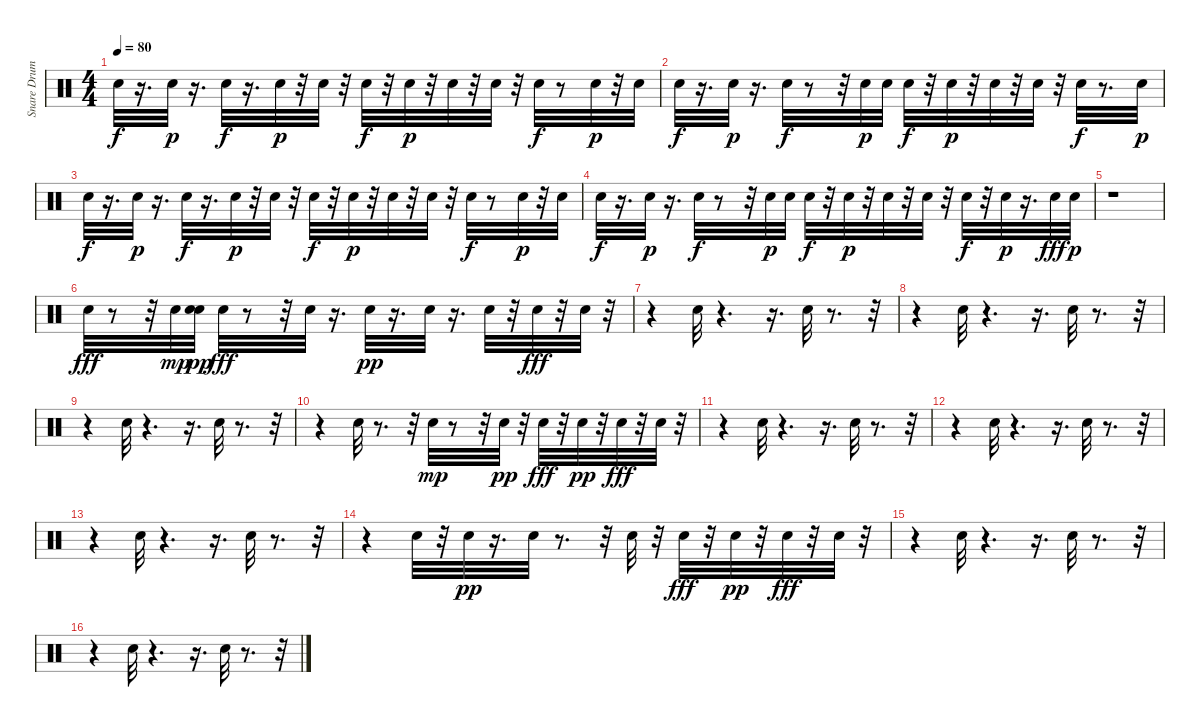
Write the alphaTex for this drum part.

\track ("Snare Drum" "Snare Drum") {instrument percussion}
\staff {score}
\articulation defaults
\ts (4 4)
\tempo 80
\clef neutral
\ks c "Snare (hit) 2".32{dy f}
r.16{d} "Snare (hit) 2".32{dy p} r.16{d} "Snare (hit) 2".32{dy f} r.16{d} "Snare (hit) 2".32{dy p} r.32 "Snare (hit) 2".32 r.32 "Snare (hit) 2".32{dy f} r.32 "Snare (hit) 2".32{dy p} r.32 "Snare (hit) 2".32 r.32 "Snare (hit) 2".32 r.32 "Snare (hit) 2".32{dy f} r.8 "Snare (hit) 2".32{dy p} r.32 "Snare (hit) 2".32 |
"Snare (hit) 2".32{dy f} r.16{d} "Snare (hit) 2".32{dy p} r.16{d} "Snare (hit) 2".32{dy f} r.8 r.32 "Snare (hit) 2".32{dy p} "Snare (hit) 2".32 "Snare (hit) 2".32{dy f} r.32 "Snare (hit) 2".32{dy p} r.32 "Snare (hit) 2".32 r.32 "Snare (hit) 2".32 r.32 "Snare (hit) 2".32{dy f} r.8{d} "Snare (hit) 2".32{dy p} |
"Snare (hit) 2".32{dy f} r.16{d} "Snare (hit) 2".32{dy p} r.16{d} "Snare (hit) 2".32{dy f} r.16{d} "Snare (hit) 2".32{dy p} r.32 "Snare (hit) 2".32 r.32 "Snare (hit) 2".32{dy f} r.32 "Snare (hit) 2".32{dy p} r.32 "Snare (hit) 2".32 r.32 "Snare (hit) 2".32 r.32 "Snare (hit) 2".32{dy f} r.8 "Snare (hit) 2".32{dy p} r.32 "Snare (hit) 2".32 |
"Snare (hit) 2".32{dy f} r.16{d} "Snare (hit) 2".32{dy p} r.16{d} "Snare (hit) 2".32{dy f} r.8 r.32 "Snare (hit) 2".32{dy p} "Snare (hit) 2".32 "Snare (hit) 2".32{dy f} r.32 "Snare (hit) 2".32{dy p} r.32 "Snare (hit) 2".32 r.32 "Snare (hit) 2".32 r.32 "Snare (hit) 2".32{dy f} r.32 "Snare (hit) 2".32{dy p} r.16{d} "Snare (hit) 2".32{dy fff} "Snare (hit) 2".32{dy p} |
r.1 |
"Snare (hit) 2".32{dy fff} r.8 r.32 "Snare (hit) 2".32{dy mp} ("Snare (hit) 2" "Snare (hit) 2").32{dy pp} "Snare (hit) 2".32{dy fff} r.8 r.32 "Snare (hit) 2".32 r.16{d} "Snare (hit) 2".32{dy pp} r.16{d} "Snare (hit) 2".32 r.16{d} "Snare (hit) 2".32 r.32 "Snare (hit) 2".32{dy fff} r.32 "Snare (hit) 2".32 r.32 |
r.4 "Snare (hit) 2".32 r.4{d} r.16{d} "Snare (hit) 2".32 r.8{d} r.32 |
r.4 "Snare (hit) 2".32 r.4{d} r.16{d} "Snare (hit) 2".32 r.8{d} r.32 |
r.4 "Snare (hit) 2".32 r.4{d} r.16{d} "Snare (hit) 2".32 r.8{d} r.32 |
r.4 "Snare (hit) 2".32 r.8{d} r.32 "Snare (hit) 2".32{dy mp} r.8 r.32 "Snare (hit) 2".32{dy pp} r.32 "Snare (hit) 2".32{dy fff} r.32 "Snare (hit) 2".32{dy pp} r.32 "Snare (hit) 2".32{dy fff} r.32 "Snare (hit) 2".32 r.32 |
r.4 "Snare (hit) 2".32 r.4{d} r.16{d} "Snare (hit) 2".32 r.8{d} r.32 |
r.4 "Snare (hit) 2".32 r.4{d} r.16{d} "Snare (hit) 2".32 r.8{d} r.32 |
r.4 "Snare (hit) 2".32 r.4{d} r.16{d} "Snare (hit) 2".32 r.8{d} r.32 |
r.4 "Snare (hit) 2".32 r.32 "Snare (hit) 2".32{dy pp} r.16{d} "Snare (hit) 2".32 r.8{d} r.32 "Snare (hit) 2".32 r.32 "Snare (hit) 2".32{dy fff} r.32 "Snare (hit) 2".32{dy pp} r.32 "Snare (hit) 2".32{dy fff} r.32 "Snare (hit) 2".32 r.32 |
r.4 "Snare (hit) 2".32 r.4{d} r.16{d} "Snare (hit) 2".32 r.8{d} r.32 |
r.4 "Snare (hit) 2".32 r.4{d} r.16{d} "Snare (hit) 2".32 r.8{d} r.32
